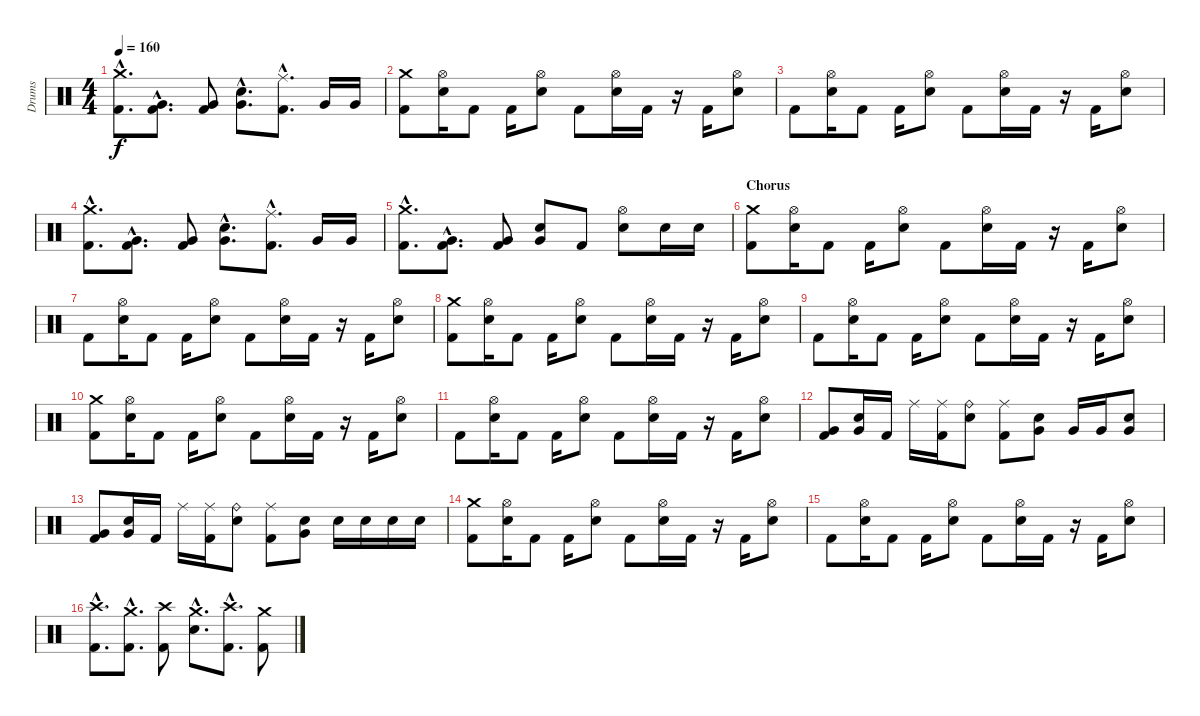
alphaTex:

\track ("Drums" "Drums") {instrument percussion}
\staff {score}
\articulation defaults
\ts (4 4)
\tempo 160
\clef neutral
\ks c
("Kick (hit) 2"{hac} "Crash medium (hit)"{hac}).8{d dy f} ("Kick (hit) 2"{hac} "Very Low Tom (hit)"{hac}).8{d} ("Kick (hit) 2" "Very Low Tom (hit)").8 ("Electric Snare (hit)"{hac} "Very Low Tom (hit)"{hac}).8{d} ("Kick (hit) 2"{hac} "Ride (middle)"{hac}).8{d} "Very Low Tom (hit)".16 "Very Low Tom (hit)".16 |
("Kick (hit) 2" "Crash medium (hit)").8 ("Electric Snare (hit)" "Hi-Hat (open)").16 "Kick (hit) 2".8 "Kick (hit) 2".16 ("Electric Snare (hit)" "Hi-Hat (open)").8 "Kick (hit) 2".8 ("Electric Snare (hit)" "Hi-Hat (open)").16 "Kick (hit) 2".16 r.16 "Kick (hit) 2".16 ("Electric Snare (hit)" "Hi-Hat (open)").8 |
"Kick (hit) 2".8 ("Electric Snare (hit)" "Hi-Hat (open)").16 "Kick (hit) 2".8 "Kick (hit) 2".16 ("Electric Snare (hit)" "Hi-Hat (open)").8 "Kick (hit) 2".8 ("Electric Snare (hit)" "Hi-Hat (open)").16 "Kick (hit) 2".16 r.16 "Kick (hit) 2".16 ("Electric Snare (hit)" "Hi-Hat (open)").8 |
("Kick (hit) 2"{hac} "Crash medium (hit)"{hac}).8{d} ("Kick (hit) 2"{hac} "Very Low Tom (hit)"{hac}).8{d} ("Kick (hit) 2" "Very Low Tom (hit)").8 ("Electric Snare (hit)"{hac} "Very Low Tom (hit)"{hac}).8{d} ("Kick (hit) 2"{hac} "Ride (middle)"{hac}).8{d} "Very Low Tom (hit)".16 "Very Low Tom (hit)".16 |
("Kick (hit) 2"{hac} "Crash medium (hit)"{hac}).8{d} ("Kick (hit) 2"{hac} "Very Low Tom (hit)"{hac}).8{d} ("Kick (hit) 2" "Very Low Tom (hit)").8 ("Electric Snare (hit)" "Very Low Tom (hit)").8 "Kick (hit) 2".8 ("Electric Snare (hit)" "Hi-Hat (open)").8 "Electric Snare (hit)".16 "Electric Snare (hit)".16 |
\section ("" "Chorus")
("Kick (hit) 2" "Crash medium (hit)").8 ("Electric Snare (hit)" "Hi-Hat (open)").16 "Kick (hit) 2".8 "Kick (hit) 2".16 ("Electric Snare (hit)" "Hi-Hat (open)").8 "Kick (hit) 2".8 ("Electric Snare (hit)" "Hi-Hat (open)").16 "Kick (hit) 2".16 r.16 "Kick (hit) 2".16 ("Electric Snare (hit)" "Hi-Hat (open)").8 |
"Kick (hit) 2".8 ("Electric Snare (hit)" "Hi-Hat (open)").16 "Kick (hit) 2".8 "Kick (hit) 2".16 ("Electric Snare (hit)" "Hi-Hat (open)").8 "Kick (hit) 2".8 ("Electric Snare (hit)" "Hi-Hat (open)").16 "Kick (hit) 2".16 r.16 "Kick (hit) 2".16 ("Electric Snare (hit)" "Hi-Hat (open)").8 |
("Kick (hit) 2" "Crash medium (hit)").8 ("Electric Snare (hit)" "Hi-Hat (open)").16 "Kick (hit) 2".8 "Kick (hit) 2".16 ("Electric Snare (hit)" "Hi-Hat (open)").8 "Kick (hit) 2".8 ("Electric Snare (hit)" "Hi-Hat (open)").16 "Kick (hit) 2".16 r.16 "Kick (hit) 2".16 ("Electric Snare (hit)" "Hi-Hat (open)").8 |
"Kick (hit) 2".8 ("Electric Snare (hit)" "Hi-Hat (open)").16 "Kick (hit) 2".8 "Kick (hit) 2".16 ("Electric Snare (hit)" "Hi-Hat (open)").8 "Kick (hit) 2".8 ("Electric Snare (hit)" "Hi-Hat (open)").16 "Kick (hit) 2".16 r.16 "Kick (hit) 2".16 ("Electric Snare (hit)" "Hi-Hat (open)").8 |
("Kick (hit) 2" "Crash medium (hit)").8 ("Electric Snare (hit)" "Hi-Hat (open)").16 "Kick (hit) 2".8 "Kick (hit) 2".16 ("Electric Snare (hit)" "Hi-Hat (open)").8 "Kick (hit) 2".8 ("Electric Snare (hit)" "Hi-Hat (open)").16 "Kick (hit) 2".16 r.16 "Kick (hit) 2".16 ("Electric Snare (hit)" "Hi-Hat (open)").8 |
"Kick (hit) 2".8 ("Electric Snare (hit)" "Hi-Hat (open)").16 "Kick (hit) 2".8 "Kick (hit) 2".16 ("Electric Snare (hit)" "Hi-Hat (open)").8 "Kick (hit) 2".8 ("Electric Snare (hit)" "Hi-Hat (open)").16 "Kick (hit) 2".16 r.16 "Kick (hit) 2".16 ("Electric Snare (hit)" "Hi-Hat (open)").8 |
("Kick (hit) 2" "Very Low Tom (hit)").8 ("Electric Snare (hit)" "Very Low Tom (hit)").16 "Kick (hit) 2".16 "Ride (middle)".16 ("Kick (hit) 2" "Ride (middle)").16 ("Electric Snare (hit)" "Ride (bell)").8 ("Kick (hit) 2" "Ride (middle)").8 ("Electric Snare (hit)" "Very Low Tom (hit)").8 "Very Low Tom (hit)".16 "Very Low Tom (hit)".16 ("Electric Snare (hit)" "Very Low Tom (hit)").8 |
("Kick (hit) 2" "Very Low Tom (hit)").8 ("Electric Snare (hit)" "Very Low Tom (hit)").16 "Kick (hit) 2".16 "Ride (middle)".16 ("Kick (hit) 2" "Ride (middle)").16 ("Electric Snare (hit)" "Ride (bell)").8 ("Kick (hit) 2" "Ride (middle)").8 ("Electric Snare (hit)" "Very Low Tom (hit)").8 "Electric Snare (hit)".16 "Electric Snare (hit)".16 "Electric Snare (hit)".16 "Electric Snare (hit)".16 |
("Kick (hit) 2" "Crash medium (hit)").8 ("Electric Snare (hit)" "Hi-Hat (open)").16 "Kick (hit) 2".8 "Kick (hit) 2".16 ("Electric Snare (hit)" "Hi-Hat (open)").8 "Kick (hit) 2".8 ("Electric Snare (hit)" "Hi-Hat (open)").16 "Kick (hit) 2".16 r.16 "Kick (hit) 2".16 ("Electric Snare (hit)" "Hi-Hat (open)").8 |
"Kick (hit) 2".8 ("Electric Snare (hit)" "Hi-Hat (open)").16 "Kick (hit) 2".8 "Kick (hit) 2".16 ("Electric Snare (hit)" "Hi-Hat (open)").8 "Kick (hit) 2".8 ("Electric Snare (hit)" "Hi-Hat (open)").16 "Kick (hit) 2".16 r.16 "Kick (hit) 2".16 ("Electric Snare (hit)" "Hi-Hat (open)").8 |
("Kick (hit) 2"{hac} "Crash high (hit)"{hac}).8{d} ("Kick (hit) 2"{hac} "Crash medium (hit)"{hac}).8{d} ("Kick (hit) 2" "Crash high (hit)").8 ("Electric Snare (hit)"{hac} "Crash medium (hit)"{hac}).8{d} ("Kick (hit) 2"{hac} "Crash high (hit)"{hac}).8{d} ("Kick (hit) 2" "Crash medium (hit)").8
